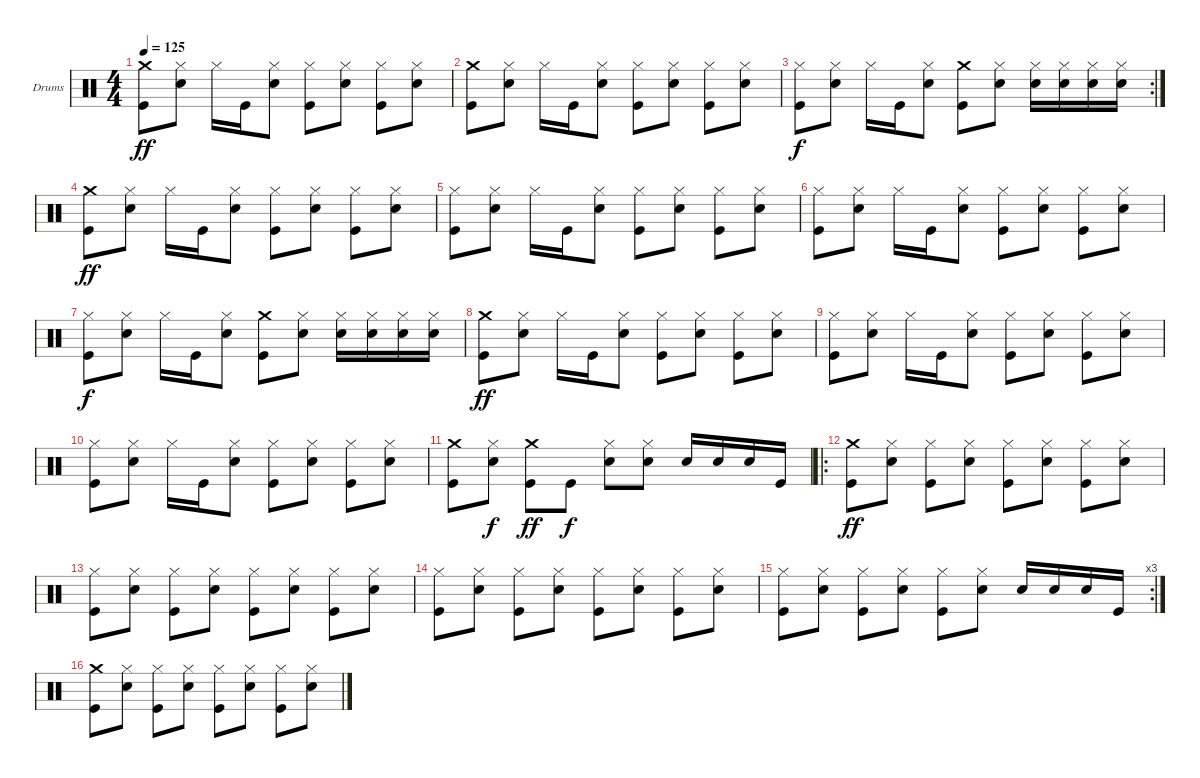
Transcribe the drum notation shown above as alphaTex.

\defaultSystemsLayout 4
\bracketExtendMode groupsimilarinstruments
\firstSystemTrackNameOrientation horizontal
\otherSystemsTrackNameOrientation horizontal
\track ("Drumkit" "Drums") {instrument percussion}
\staff {score}
\articulation defaults
\ts (4 4)
\tempo 125
\clef neutral
\ks c
("Kick (hit)" "Crash medium (hit)").8{dy ff} ("Snare (hit) 2" "Hi-Hat (closed)").8 "Hi-Hat (closed)".16 "Kick (hit)".16 ("Snare (hit) 2" "Hi-Hat (closed)").8 ("Kick (hit)" "Hi-Hat (closed)").8 ("Snare (hit) 2" "Hi-Hat (closed)").8 ("Kick (hit)" "Hi-Hat (closed)").8 ("Snare (hit) 2" "Hi-Hat (closed)").8 |
("Kick (hit)" "Crash medium (hit)").8 ("Snare (hit) 2" "Hi-Hat (closed)").8 "Hi-Hat (closed)".16 "Kick (hit)".16 ("Snare (hit) 2" "Hi-Hat (closed)").8 ("Kick (hit)" "Hi-Hat (closed)").8 ("Snare (hit) 2" "Hi-Hat (closed)").8 ("Kick (hit)" "Hi-Hat (closed)").8 ("Snare (hit) 2" "Hi-Hat (closed)").8 |
\rc 2
("Kick (hit)" "Hi-Hat (closed)").8{dy f} ("Snare (hit) 2" "Hi-Hat (closed)").8 "Hi-Hat (closed)".16 "Kick (hit)".16 ("Snare (hit) 2" "Hi-Hat (closed)").8 ("Kick (hit)" "Crash medium (hit)").8 ("Snare (hit) 2" "Hi-Hat (closed)").8 ("Snare (hit) 2" "Hi-Hat (closed)").16 ("Snare (hit) 2" "Hi-Hat (closed)").16 ("Snare (hit) 2" "Hi-Hat (closed)").16 ("Snare (hit) 2" "Hi-Hat (closed)").16 |
("Kick (hit)" "Crash medium (hit)").8{dy ff} ("Snare (hit) 2" "Hi-Hat (closed)").8 "Hi-Hat (closed)".16 "Kick (hit)".16 ("Snare (hit) 2" "Hi-Hat (closed)").8 ("Kick (hit)" "Hi-Hat (closed)").8 ("Snare (hit) 2" "Hi-Hat (closed)").8 ("Kick (hit)" "Hi-Hat (closed)").8 ("Snare (hit) 2" "Hi-Hat (closed)").8 |
("Kick (hit)" "Hi-Hat (closed)").8 ("Snare (hit) 2" "Hi-Hat (closed)").8 "Hi-Hat (closed)".16 "Kick (hit)".16 ("Snare (hit) 2" "Hi-Hat (closed)").8 ("Kick (hit)" "Hi-Hat (closed)").8 ("Snare (hit) 2" "Hi-Hat (closed)").8 ("Kick (hit)" "Hi-Hat (closed)").8 ("Snare (hit) 2" "Hi-Hat (closed)").8 |
("Kick (hit)" "Hi-Hat (closed)").8 ("Snare (hit) 2" "Hi-Hat (closed)").8 "Hi-Hat (closed)".16 "Kick (hit)".16 ("Snare (hit) 2" "Hi-Hat (closed)").8 ("Kick (hit)" "Hi-Hat (closed)").8 ("Snare (hit) 2" "Hi-Hat (closed)").8 ("Kick (hit)" "Hi-Hat (closed)").8 ("Snare (hit) 2" "Hi-Hat (closed)").8 |
("Kick (hit)" "Hi-Hat (closed)").8{dy f} ("Snare (hit) 2" "Hi-Hat (closed)").8 "Hi-Hat (closed)".16 "Kick (hit)".16 ("Snare (hit) 2" "Hi-Hat (closed)").8 ("Kick (hit)" "Crash medium (hit)").8 ("Snare (hit) 2" "Hi-Hat (closed)").8 ("Snare (hit) 2" "Hi-Hat (closed)").16 ("Snare (hit) 2" "Hi-Hat (closed)").16 ("Snare (hit) 2" "Hi-Hat (closed)").16 ("Snare (hit) 2" "Hi-Hat (closed)").16 |
("Kick (hit)" "Crash medium (hit)").8{dy ff} ("Snare (hit) 2" "Hi-Hat (closed)").8 "Hi-Hat (closed)".16 "Kick (hit)".16 ("Snare (hit) 2" "Hi-Hat (closed)").8 ("Kick (hit)" "Hi-Hat (closed)").8 ("Snare (hit) 2" "Hi-Hat (closed)").8 ("Kick (hit)" "Hi-Hat (closed)").8 ("Snare (hit) 2" "Hi-Hat (closed)").8 |
("Kick (hit)" "Hi-Hat (closed)").8 ("Snare (hit) 2" "Hi-Hat (closed)").8 "Hi-Hat (closed)".16 "Kick (hit)".16 ("Snare (hit) 2" "Hi-Hat (closed)").8 ("Kick (hit)" "Hi-Hat (closed)").8 ("Snare (hit) 2" "Hi-Hat (closed)").8 ("Kick (hit)" "Hi-Hat (closed)").8 ("Snare (hit) 2" "Hi-Hat (closed)").8 |
("Kick (hit)" "Hi-Hat (closed)").8 ("Snare (hit) 2" "Hi-Hat (closed)").8 "Hi-Hat (closed)".16 "Kick (hit)".16 ("Snare (hit) 2" "Hi-Hat (closed)").8 ("Kick (hit)" "Hi-Hat (closed)").8 ("Snare (hit) 2" "Hi-Hat (closed)").8 ("Kick (hit)" "Hi-Hat (closed)").8 ("Snare (hit) 2" "Hi-Hat (closed)").8 |
("Kick (hit)" "Crash medium (hit)").8 ("Snare (hit) 2" "Hi-Hat (closed)").8{dy f} ("Kick (hit)" "Crash medium (hit)").8{dy ff} "Kick (hit)".8{dy f} ("Snare (hit) 2" "Hi-Hat (closed)").8 ("Snare (hit) 2" "Hi-Hat (closed)").8 "Snare (hit) 2".16 "Snare (hit) 2".16 "Snare (hit) 2".16 "Kick (hit)".16 |
\ro
("Kick (hit)" "Crash medium (hit)").8{dy ff} ("Snare (hit) 2" "Hi-Hat (closed)").8 ("Kick (hit)" "Hi-Hat (closed)").8 ("Snare (hit) 2" "Hi-Hat (closed)").8 ("Kick (hit)" "Hi-Hat (closed)").8 ("Snare (hit) 2" "Hi-Hat (closed)").8 ("Kick (hit)" "Hi-Hat (closed)").8 ("Snare (hit) 2" "Hi-Hat (closed)").8 |
("Kick (hit)" "Hi-Hat (closed)").8 ("Snare (hit) 2" "Hi-Hat (closed)").8 ("Kick (hit)" "Hi-Hat (closed)").8 ("Snare (hit) 2" "Hi-Hat (closed)").8 ("Kick (hit)" "Hi-Hat (closed)").8 ("Snare (hit) 2" "Hi-Hat (closed)").8 ("Kick (hit)" "Hi-Hat (closed)").8 ("Snare (hit) 2" "Hi-Hat (closed)").8 |
("Kick (hit)" "Hi-Hat (closed)").8 ("Snare (hit) 2" "Hi-Hat (closed)").8 ("Kick (hit)" "Hi-Hat (closed)").8 ("Snare (hit) 2" "Hi-Hat (closed)").8 ("Kick (hit)" "Hi-Hat (closed)").8 ("Snare (hit) 2" "Hi-Hat (closed)").8 ("Kick (hit)" "Hi-Hat (closed)").8 ("Snare (hit) 2" "Hi-Hat (closed)").8 |
\rc 3
("Kick (hit)" "Hi-Hat (closed)").8 ("Snare (hit) 2" "Hi-Hat (closed)").8 ("Kick (hit)" "Hi-Hat (closed)").8 ("Snare (hit) 2" "Hi-Hat (closed)").8 ("Kick (hit)" "Hi-Hat (closed)").8 ("Snare (hit) 2" "Hi-Hat (closed)").8 "Snare (hit) 2".16 "Snare (hit) 2".16 "Snare (hit) 2".16 "Kick (hit)".16 |
("Kick (hit)" "Crash medium (hit)").8 ("Snare (hit) 2" "Hi-Hat (closed)").8 ("Kick (hit)" "Hi-Hat (closed)").8 ("Snare (hit) 2" "Hi-Hat (closed)").8 ("Kick (hit)" "Hi-Hat (closed)").8 ("Snare (hit) 2" "Hi-Hat (closed)").8 ("Kick (hit)" "Hi-Hat (closed)").8 ("Snare (hit) 2" "Hi-Hat (closed)").8
